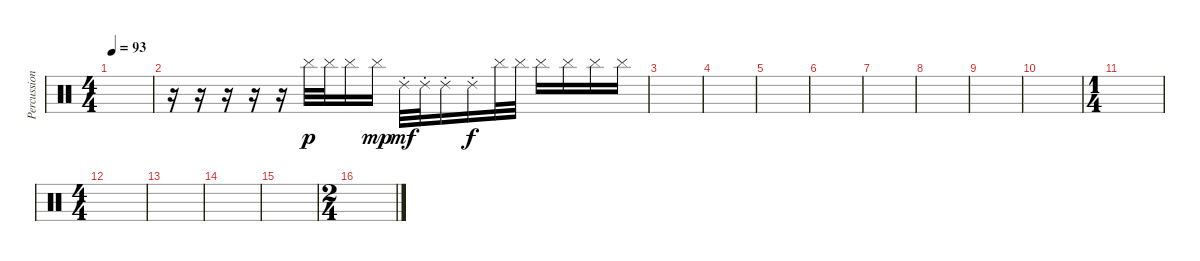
\track ("Percussion" "Percussion") {instrument percussion}
\staff {score}
\articulation defaults
\ts (4 4)
\tempo 93
\clef neutral
\ks c
|
r.16 r.16 r.16 r.16 r.16 "Cymbal (hit)".32{dy p} "Cymbal (hit)".32 "Cymbal (hit)".16 "Cymbal (hit)".16{dy mp} "Ride (choke) 2".32{dy mf} "Ride (choke) 2".32 "Ride (choke) 2".16 "Ride (choke) 2".16{dy f} "Cymbal (hit)".32 "Cymbal (hit)".32 "Cymbal (hit)".16 "Cymbal (hit)".16 "Cymbal (hit)".16 "Cymbal (hit)".16 |
|
|
|
|
|
|
|
|
\ts (1 4)
|
\ts (4 4)
|
|
|
|
\ts (2 4)
